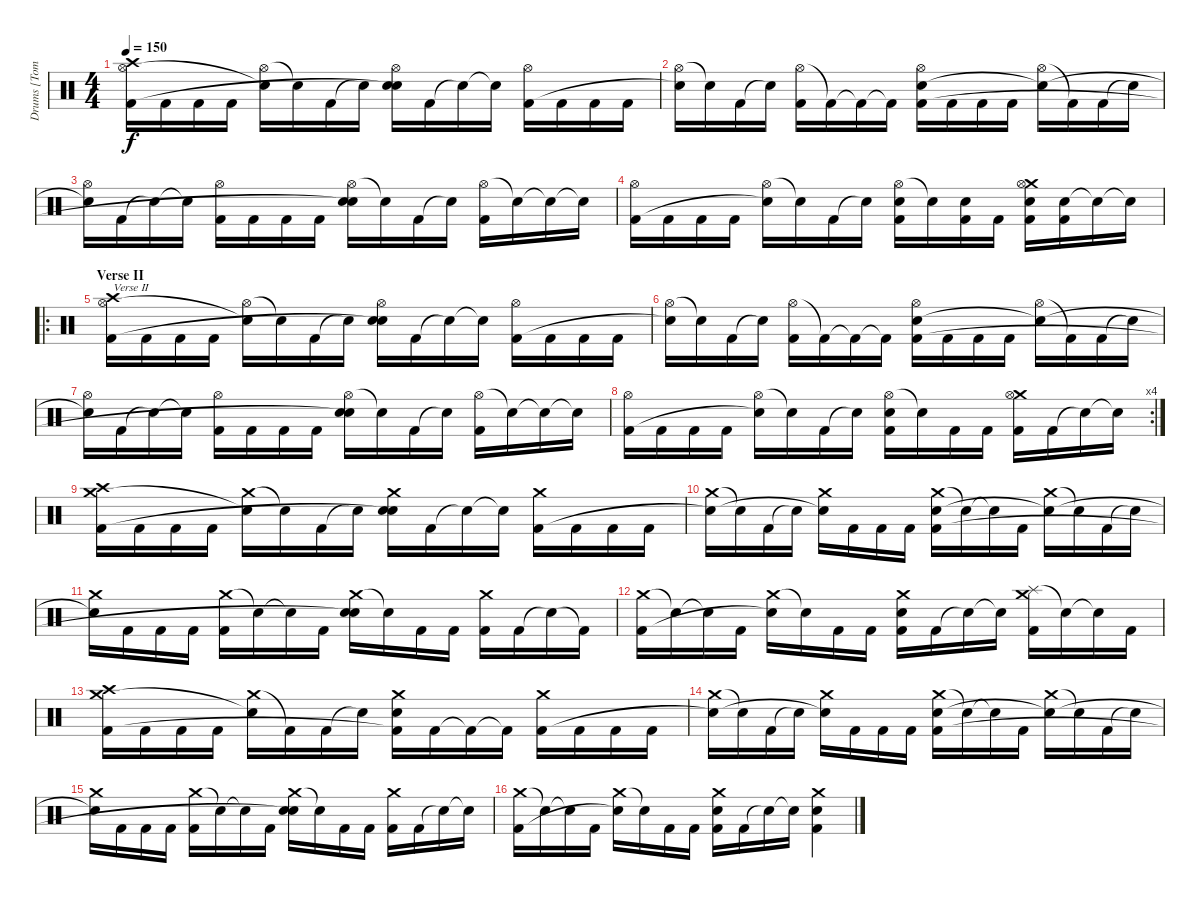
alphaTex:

\track ("Drums [Tomas Haake]" "Drums [Tom") {instrument percussion}
\staff {score}
\articulation defaults
\ts (4 4)
\tempo 150
\clef neutral
\ks c
("Crash high (hit)" "Hi-Hat (open)" "Kick (hit) 2").16{dy f} "Kick (hit) 2".16 "Kick (hit) 2".16 "Kick (hit) 2".16 ("Hi-Hat (open)" "Snare (hit)"{t}).16 "Snare (hit)"{t}.16 "Kick (hit) 2".16 "Snare (hit)"{t}.16 ("Hi-Hat (open)" "Electric Snare (hit)" "Snare (hit)"{t}).16 "Kick (hit) 2".16 "Snare (hit)"{t}.16 "Snare (hit)"{t}.16 ("Hi-Hat (open)" "Kick (hit) 2").16 "Kick (hit) 2".16 "Kick (hit) 2".16 "Kick (hit) 2".16 |
("Hi-Hat (open)" "Snare (hit)"{t}).16 "Snare (hit)"{t}.16 "Kick (hit) 2".16 "Snare (hit)"{t}.16 ("Hi-Hat (open)" "Kick (hit) 2").16 "Kick (hit) 2"{t}.16 "Kick (hit) 2"{t}.16 "Kick (hit) 2"{t}.16 ("Hi-Hat (open)" "Electric Snare (hit)" "Kick (hit) 2").16 "Kick (hit) 2".16 "Kick (hit) 2".16 "Kick (hit) 2".16 ("Hi-Hat (open)" "Snare (hit)"{t}).16 "Kick (hit) 2"{t}.16 "Kick (hit) 2".16 "Snare (hit)"{t}.16 |
("Hi-Hat (open)" "Snare (hit)"{t}).16 "Kick (hit) 2".16 "Snare (hit)"{t}.16 "Snare (hit)"{t}.16 ("Hi-Hat (open)" "Kick (hit) 2").16 "Kick (hit) 2".16 "Kick (hit) 2".16 "Kick (hit) 2".16 ("Hi-Hat (open)" "Electric Snare (hit)" "Snare (hit)"{t}).16 "Snare (hit)"{t}.16 "Kick (hit) 2".16 "Snare (hit)"{t}.16 ("Hi-Hat (open)" "Kick (hit) 2").16 "Snare (hit)"{t}.16 "Snare (hit)"{t}.16 "Snare (hit)"{t}.16 |
("Hi-Hat (open)" "Kick (hit) 2").16 "Kick (hit) 2".16 "Kick (hit) 2".16 "Kick (hit) 2".16 ("Hi-Hat (open)" "Snare (hit)"{t}).16 "Snare (hit)"{t}.16 "Kick (hit) 2".16 "Snare (hit)"{t}.16 ("Hi-Hat (open)" "Electric Snare (hit)" "Kick (hit) 2").16 "Snare (hit)"{t}.16 ("Electric Snare (hit)" "Kick (hit) 2").16 "Kick (hit) 2".16 ("Crash medium (hit)" "Hi-Hat (open)" "Electric Snare (hit)" "Kick (hit) 2").16 ("Electric Snare (hit)" "Kick (hit) 2").16 "Snare (hit)"{t}.16 "Snare (hit)"{t}.16 |
\ro
\section ("" "Verse II")
("Crash high (hit)" "Hi-Hat (open)" "Kick (hit) 2").16{txt "Verse II"} "Kick (hit) 2".16 "Kick (hit) 2".16 "Kick (hit) 2".16 ("Hi-Hat (open)" "Snare (hit)"{t}).16 "Snare (hit)"{t}.16 "Kick (hit) 2".16 "Snare (hit)"{t}.16 ("Hi-Hat (open)" "Electric Snare (hit)" "Snare (hit)"{t}).16 "Kick (hit) 2".16 "Snare (hit)"{t}.16 "Snare (hit)"{t}.16 ("Hi-Hat (open)" "Kick (hit) 2").16 "Kick (hit) 2".16 "Kick (hit) 2".16 "Kick (hit) 2".16 |
("Hi-Hat (open)" "Snare (hit)"{t}).16 "Snare (hit)"{t}.16 "Kick (hit) 2".16 "Snare (hit)"{t}.16 ("Hi-Hat (open)" "Kick (hit) 2").16 "Kick (hit) 2"{t}.16 "Kick (hit) 2"{t}.16 "Kick (hit) 2"{t}.16 ("Hi-Hat (open)" "Electric Snare (hit)" "Kick (hit) 2").16 "Kick (hit) 2".16 "Kick (hit) 2".16 "Kick (hit) 2".16 ("Hi-Hat (open)" "Snare (hit)"{t}).16 "Kick (hit) 2"{t}.16 "Kick (hit) 2".16 "Snare (hit)"{t}.16 |
("Hi-Hat (open)" "Snare (hit)"{t}).16 "Kick (hit) 2".16 "Snare (hit)"{t}.16 "Snare (hit)"{t}.16 ("Hi-Hat (open)" "Kick (hit) 2").16 "Kick (hit) 2".16 "Kick (hit) 2".16 "Kick (hit) 2".16 ("Hi-Hat (open)" "Electric Snare (hit)" "Snare (hit)"{t}).16 "Snare (hit)"{t}.16 "Kick (hit) 2".16 "Snare (hit)"{t}.16 ("Hi-Hat (open)" "Kick (hit) 2").16 "Snare (hit)"{t}.16 "Snare (hit)"{t}.16 "Snare (hit)"{t}.16 |
\rc 4
("Hi-Hat (open)" "Kick (hit) 2").16 "Kick (hit) 2".16 "Kick (hit) 2".16 "Kick (hit) 2".16 ("Hi-Hat (open)" "Snare (hit)"{t}).16 "Snare (hit)"{t}.16 "Kick (hit) 2".16 "Snare (hit)"{t}.16 ("Hi-Hat (open)" "Electric Snare (hit)" "Kick (hit) 2").16 "Snare (hit)"{t}.16 "Kick (hit) 2".16 "Kick (hit) 2".16 ("Crash medium (hit)" "Hi-Hat (open)" "Kick (hit) 2").16 "Kick (hit) 2".16 "Snare (hit)"{t}.16 "Snare (hit)"{t}.16 |
("Crash high (hit)" "Crash medium (hit)" "Kick (hit) 2").16 "Kick (hit) 2".16 "Kick (hit) 2".16 "Kick (hit) 2".16 ("Crash medium (hit)" "Snare (hit)"{t}).16 "Snare (hit)"{t}.16 "Kick (hit) 2".16 "Snare (hit)"{t}.16 ("Crash medium (hit)" "Electric Snare (hit)" "Snare (hit)"{t}).16 "Kick (hit) 2".16 "Snare (hit)"{t}.16 "Snare (hit)"{t}.16 ("Crash medium (hit)" "Kick (hit) 2").16 "Kick (hit) 2".16 "Kick (hit) 2".16 "Kick (hit) 2".16 |
("Crash medium (hit)" "Snare (hit)"{t}).16 "Snare (hit)"{t}.16 "Kick (hit) 2".16 "Snare (hit)"{t}.16 ("Crash medium (hit)" "Snare (hit)"{t}).16 "Kick (hit) 2".16 "Kick (hit) 2".16 "Kick (hit) 2".16 ("Crash medium (hit)" "Electric Snare (hit)" "Kick (hit) 2").16 "Snare (hit)"{t}.16 "Snare (hit)"{t}.16 "Kick (hit) 2".16 ("Crash medium (hit)" "Snare (hit)"{t}).16 "Snare (hit)"{t}.16 "Kick (hit) 2".16 "Snare (hit)"{t}.16 |
("Crash medium (hit)" "Snare (hit)"{t}).16 "Kick (hit) 2".16 "Kick (hit) 2".16 "Kick (hit) 2".16 ("Crash medium (hit)" "Kick (hit) 2").16 "Snare (hit)"{t}.16 "Snare (hit)"{t}.16 "Kick (hit) 2".16 ("Crash medium (hit)" "Electric Snare (hit)" "Snare (hit)"{t}).16 "Snare (hit)"{t}.16 "Kick (hit) 2".16 "Kick (hit) 2".16 ("Crash medium (hit)" "Kick (hit) 2").16 "Kick (hit) 2".16 "Snare (hit)"{t}.16 "Kick (hit) 2"{t}.16 |
("Crash medium (hit)" "Kick (hit) 2").16 "Snare (hit)"{t}.16 "Snare (hit)"{t}.16 "Kick (hit) 2".16 ("Crash medium (hit)" "Snare (hit)"{t}).16 "Snare (hit)"{t}.16 "Kick (hit) 2".16 "Kick (hit) 2".16 ("Crash medium (hit)" "Electric Snare (hit)" "Kick (hit) 2").16 "Kick (hit) 2".16 "Snare (hit)"{t}.16 "Snare (hit)"{t}.16 ("Splash (hit)" "Crash medium (hit)" "Kick (hit) 2").16 "Snare (hit)"{t}.16 "Snare (hit)"{t}.16 "Kick (hit) 2".16 |
("Crash high (hit)" "Crash medium (hit)" "Kick (hit) 2").16 "Kick (hit) 2".16 "Kick (hit) 2".16 "Kick (hit) 2".16 ("Crash medium (hit)" "Snare (hit)"{t}).16 "Kick (hit) 2"{t}.16 "Kick (hit) 2".16 "Snare (hit)"{t}.16 ("Crash medium (hit)" "Electric Snare (hit)" "Kick (hit) 2"{t}).16 "Kick (hit) 2".16 "Kick (hit) 2"{t}.16 "Kick (hit) 2"{t}.16 ("Crash medium (hit)" "Kick (hit) 2").16 "Kick (hit) 2".16 "Kick (hit) 2".16 "Kick (hit) 2".16 |
("Crash medium (hit)" "Snare (hit)"{t}).16 "Snare (hit)"{t}.16 "Kick (hit) 2".16 "Snare (hit)"{t}.16 ("Crash medium (hit)" "Snare (hit)"{t}).16 "Kick (hit) 2".16 "Kick (hit) 2".16 "Kick (hit) 2".16 ("Crash medium (hit)" "Electric Snare (hit)" "Kick (hit) 2").16 "Snare (hit)"{t}.16 "Snare (hit)"{t}.16 "Kick (hit) 2".16 ("Crash medium (hit)" "Snare (hit)"{t}).16 "Snare (hit)"{t}.16 "Kick (hit) 2".16 "Snare (hit)"{t}.16 |
("Crash medium (hit)" "Snare (hit)"{t}).16 "Kick (hit) 2".16 "Kick (hit) 2".16 "Kick (hit) 2".16 ("Crash medium (hit)" "Kick (hit) 2").16 "Snare (hit)"{t}.16 "Snare (hit)"{t}.16 "Kick (hit) 2".16 ("Crash medium (hit)" "Electric Snare (hit)" "Snare (hit)"{t}).16 "Snare (hit)"{t}.16 "Kick (hit) 2".16 "Kick (hit) 2".16 ("Crash medium (hit)" "Kick (hit) 2").16 "Kick (hit) 2".16 "Snare (hit)"{t}.16 "Snare (hit)"{t}.16 |
("Crash medium (hit)" "Kick (hit) 2").16 "Snare (hit)"{t}.16 "Snare (hit)"{t}.16 "Kick (hit) 2".16 ("Crash medium (hit)" "Snare (hit)"{t}).16 "Snare (hit)"{t}.16 "Kick (hit) 2".16 "Kick (hit) 2".16 ("Crash medium (hit)" "Electric Snare (hit)" "Kick (hit) 2").16 "Kick (hit) 2".16 "Snare (hit)"{t}.16 "Snare (hit)"{t}.16 ("Crash medium (hit)" "Electric Snare (hit)" "Kick (hit) 2").4
